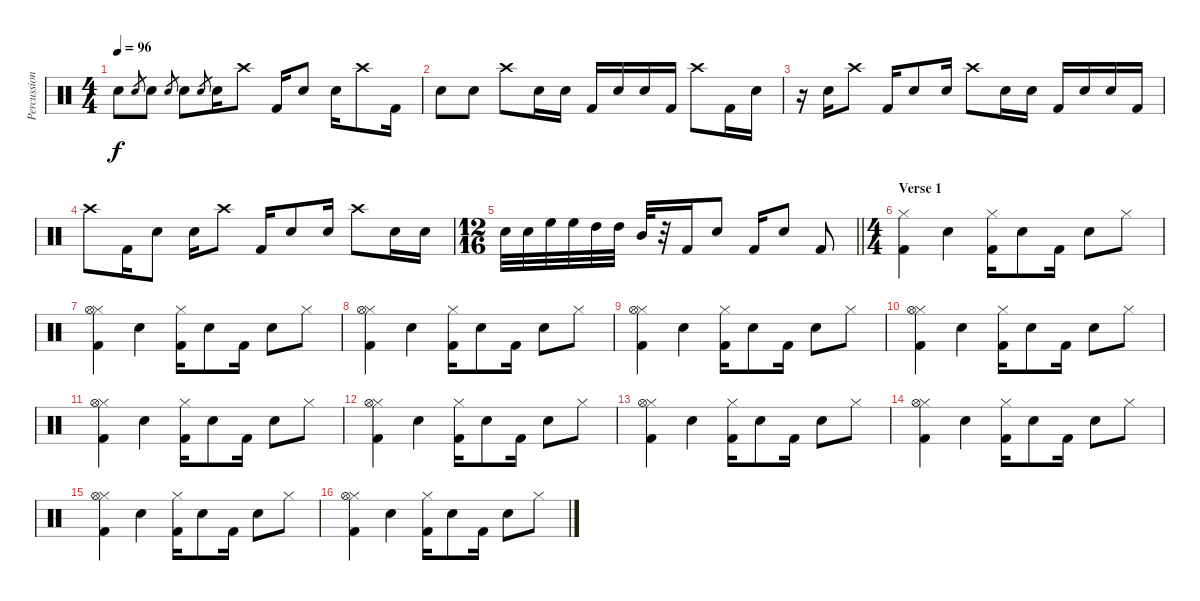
\track ("Percussion" "Percussion") {instrument percussion}
\staff {score}
\articulation defaults
\ts (4 4)
\tempo 96
\clef neutral
\ks c "Electric Snare (hit)".8{dy f} "Electric Snare (hit)".8{gr} "Electric Snare (hit)".8 "Electric Snare (hit)".8{gr} "Electric Snare (hit)".8 "Electric Snare (hit)".8{gr} "Electric Snare (hit)".16 "Crash high (hit)".8 "Kick (hit) 2".16 "Electric Snare (hit)".8 "Electric Snare (hit)".16 "Crash high (hit)".8 "Kick (hit) 2".16
|
"Electric Snare (hit)".8 "Electric Snare (hit)".8 "Crash high (hit)".8 "Electric Snare (hit)".16 "Electric Snare (hit)".16 "Kick (hit) 2".16 "Electric Snare (hit)".16 "Electric Snare (hit)".16 "Kick (hit) 2".16 "Crash high (hit)".8 "Kick (hit) 2".16 "Electric Snare (hit)".16 |
r.16 "Electric Snare (hit)".16 "Crash high (hit)".8 "Kick (hit) 2".16 "Electric Snare (hit)".8 "Electric Snare (hit)".16 "Crash high (hit)".8 "Electric Snare (hit)".16 "Electric Snare (hit)".16 "Kick (hit) 2".16 "Electric Snare (hit)".16 "Electric Snare (hit)".16 "Kick (hit) 2".16 |
"Crash high (hit)".8 "Kick (hit) 2".16 "Electric Snare (hit)".8 "Electric Snare (hit)".16 "Crash high (hit)".8 "Kick (hit) 2".16 "Electric Snare (hit)".8 "Electric Snare (hit)".16 "Crash high (hit)".8 "Electric Snare (hit)".16 "Electric Snare (hit)".16 |
\ts (12 16)
\barLineRight lightlight "Electric Snare (hit)".32 "Electric Snare (hit)".32 "High Floor Tom (hit)".32 "High Floor Tom (hit)".32 "High Tom (hit)".32 "High Tom (hit)".32 "Mid Tom (hit)".32
r.32 "Kick (hit) 2".16 "Electric Snare (hit)".8 "Kick (hit) 2".16 "Electric Snare (hit)".8 "Kick (hit) 2".8 |
\ts (4 4)
\section ("" "Verse 1")
("Hi-Hat (closed)" "Kick (hit) 2").4 "Electric Snare (hit)".4 ("Hi-Hat (closed)" "Kick (hit) 2").16 "Electric Snare (hit)".8 "Kick (hit) 2".16 "Electric Snare (hit)".8 "Hi-Hat (closed)".8 |
("Hi-Hat (closed)" "Hi-Hat (open)" "Kick (hit) 2").4 "Electric Snare (hit)".4 ("Hi-Hat (closed)" "Kick (hit) 2").16 "Electric Snare (hit)".8 "Kick (hit) 2".16 "Electric Snare (hit)".8 "Hi-Hat (closed)".8 |
("Hi-Hat (closed)" "Hi-Hat (open)" "Kick (hit) 2").4 "Electric Snare (hit)".4 ("Hi-Hat (closed)" "Kick (hit) 2").16 "Electric Snare (hit)".8 "Kick (hit) 2".16 "Electric Snare (hit)".8 "Hi-Hat (closed)".8 |
("Hi-Hat (closed)" "Hi-Hat (open)" "Kick (hit) 2").4 "Electric Snare (hit)".4 ("Hi-Hat (closed)" "Kick (hit) 2").16 "Electric Snare (hit)".8 "Kick (hit) 2".16 "Electric Snare (hit)".8 "Hi-Hat (closed)".8 |
("Hi-Hat (closed)" "Hi-Hat (open)" "Kick (hit) 2").4 "Electric Snare (hit)".4 ("Hi-Hat (closed)" "Kick (hit) 2").16 "Electric Snare (hit)".8 "Kick (hit) 2".16 "Electric Snare (hit)".8 "Hi-Hat (closed)".8 |
("Hi-Hat (closed)" "Hi-Hat (open)" "Kick (hit) 2").4 "Electric Snare (hit)".4 ("Hi-Hat (closed)" "Kick (hit) 2").16 "Electric Snare (hit)".8 "Kick (hit) 2".16 "Electric Snare (hit)".8 "Hi-Hat (closed)".8 |
("Hi-Hat (closed)" "Hi-Hat (open)" "Kick (hit) 2").4 "Electric Snare (hit)".4 ("Hi-Hat (closed)" "Kick (hit) 2").16 "Electric Snare (hit)".8 "Kick (hit) 2".16 "Electric Snare (hit)".8 "Hi-Hat (closed)".8 |
("Hi-Hat (closed)" "Hi-Hat (open)" "Kick (hit) 2").4 "Electric Snare (hit)".4 ("Hi-Hat (closed)" "Kick (hit) 2").16 "Electric Snare (hit)".8 "Kick (hit) 2".16 "Electric Snare (hit)".8 "Hi-Hat (closed)".8 |
("Hi-Hat (closed)" "Hi-Hat (open)" "Kick (hit) 2").4 "Electric Snare (hit)".4 ("Hi-Hat (closed)" "Kick (hit) 2").16 "Electric Snare (hit)".8 "Kick (hit) 2".16 "Electric Snare (hit)".8 "Hi-Hat (closed)".8 |
("Hi-Hat (closed)" "Hi-Hat (open)" "Kick (hit) 2").4 "Electric Snare (hit)".4 ("Hi-Hat (closed)" "Kick (hit) 2").16 "Electric Snare (hit)".8 "Kick (hit) 2".16 "Electric Snare (hit)".8 "Hi-Hat (closed)".8 |
("Hi-Hat (closed)" "Hi-Hat (open)" "Kick (hit) 2").4 "Electric Snare (hit)".4 ("Hi-Hat (closed)" "Kick (hit) 2").16 "Electric Snare (hit)".8 "Kick (hit) 2".16 "Electric Snare (hit)".8 "Hi-Hat (closed)".8
